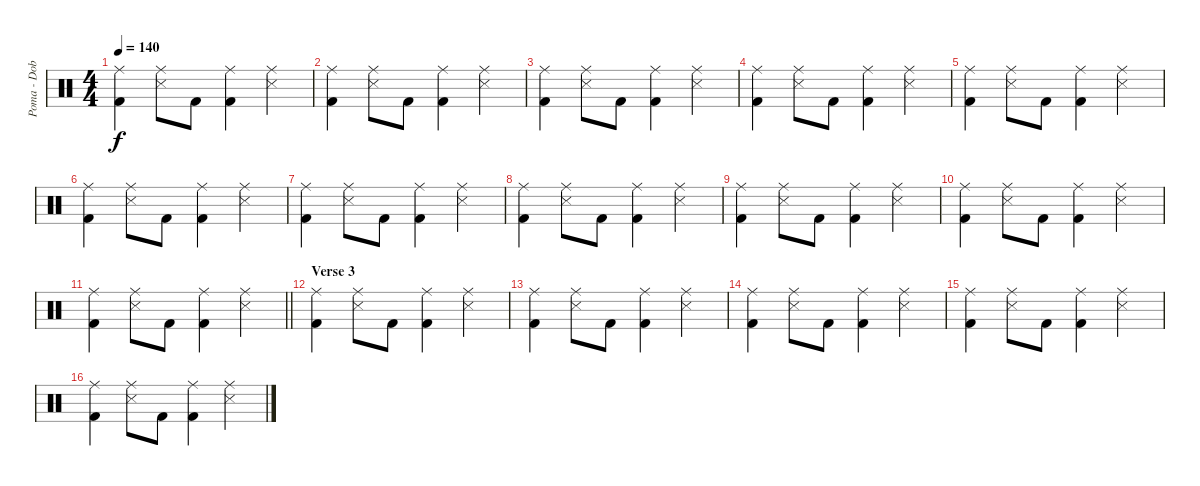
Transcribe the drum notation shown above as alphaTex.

\track ("Poma - Dob" "Poma - Dob") {instrument percussion}
\staff {score}
\articulation defaults
\ts (4 4)
\tempo 140
\clef neutral
\ks c
("Ride (middle)" "Kick (hit) 2").4{dy f} ("Ride (middle)" "Snare (side stick) 3").8 "Kick (hit) 2".8 ("Ride (middle)" "Kick (hit) 2").4 ("Ride (middle)" "Snare (side stick) 3").4 |
("Ride (middle)" "Kick (hit) 2").4 ("Ride (middle)" "Snare (side stick) 3").8 "Kick (hit) 2".8 ("Ride (middle)" "Kick (hit) 2").4 ("Ride (middle)" "Snare (side stick) 3").4 |
("Ride (middle)" "Kick (hit) 2").4 ("Ride (middle)" "Snare (side stick) 3").8 "Kick (hit) 2".8 ("Ride (middle)" "Kick (hit) 2").4 ("Ride (middle)" "Snare (side stick) 3").4 |
("Ride (middle)" "Kick (hit) 2").4 ("Ride (middle)" "Snare (side stick) 3").8 "Kick (hit) 2".8 ("Ride (middle)" "Kick (hit) 2").4 ("Ride (middle)" "Snare (side stick) 3").4 |
("Ride (middle)" "Kick (hit) 2").4 ("Ride (middle)" "Snare (side stick) 3").8 "Kick (hit) 2".8 ("Ride (middle)" "Kick (hit) 2").4 ("Ride (middle)" "Snare (side stick) 3").4 |
("Ride (middle)" "Kick (hit) 2").4 ("Ride (middle)" "Snare (side stick) 3").8 "Kick (hit) 2".8 ("Ride (middle)" "Kick (hit) 2").4 ("Ride (middle)" "Snare (side stick) 3").4 |
("Ride (middle)" "Kick (hit) 2").4 ("Ride (middle)" "Snare (side stick) 3").8 "Kick (hit) 2".8 ("Ride (middle)" "Kick (hit) 2").4 ("Ride (middle)" "Snare (side stick) 3").4 |
("Ride (middle)" "Kick (hit) 2").4 ("Ride (middle)" "Snare (side stick) 3").8 "Kick (hit) 2".8 ("Ride (middle)" "Kick (hit) 2").4 ("Ride (middle)" "Snare (side stick) 3").4 |
("Ride (middle)" "Kick (hit) 2").4 ("Ride (middle)" "Snare (side stick) 3").8 "Kick (hit) 2".8 ("Ride (middle)" "Kick (hit) 2").4 ("Ride (middle)" "Snare (side stick) 3").4 |
("Ride (middle)" "Kick (hit) 2").4 ("Ride (middle)" "Snare (side stick) 3").8 "Kick (hit) 2".8 ("Ride (middle)" "Kick (hit) 2").4 ("Ride (middle)" "Snare (side stick) 3").4 |
\barLineRight lightlight
("Ride (middle)" "Kick (hit) 2").4 ("Ride (middle)" "Snare (side stick) 3").8 "Kick (hit) 2".8 ("Ride (middle)" "Kick (hit) 2").4 ("Ride (middle)" "Snare (side stick) 3").4 |
\section ("" "Verse 3")
("Ride (middle)" "Kick (hit) 2").4 ("Ride (middle)" "Snare (side stick) 3").8 "Kick (hit) 2".8 ("Ride (middle)" "Kick (hit) 2").4 ("Ride (middle)" "Snare (side stick) 3").4 |
("Ride (middle)" "Kick (hit) 2").4 ("Ride (middle)" "Snare (side stick) 3").8 "Kick (hit) 2".8 ("Ride (middle)" "Kick (hit) 2").4 ("Ride (middle)" "Snare (side stick) 3").4 |
("Ride (middle)" "Kick (hit) 2").4 ("Ride (middle)" "Snare (side stick) 3").8 "Kick (hit) 2".8 ("Ride (middle)" "Kick (hit) 2").4 ("Ride (middle)" "Snare (side stick) 3").4 |
("Ride (middle)" "Kick (hit) 2").4 ("Ride (middle)" "Snare (side stick) 3").8 "Kick (hit) 2".8 ("Ride (middle)" "Kick (hit) 2").4 ("Ride (middle)" "Snare (side stick) 3").4 |
("Ride (middle)" "Kick (hit) 2").4 ("Ride (middle)" "Snare (side stick) 3").8 "Kick (hit) 2".8 ("Ride (middle)" "Kick (hit) 2").4 ("Ride (middle)" "Snare (side stick) 3").4
